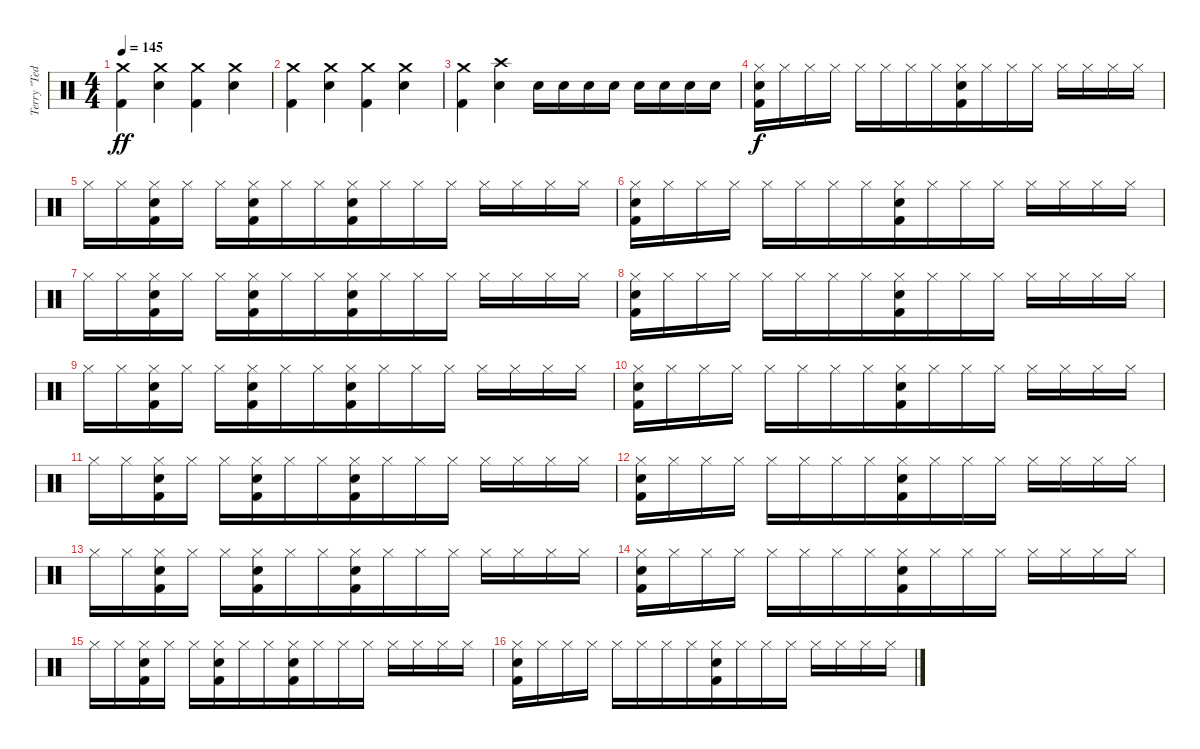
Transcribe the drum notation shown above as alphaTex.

\track ("Terry \"Ted\" Bozzio" "Terry \"Ted") {instrument percussion}
\staff {score}
\articulation defaults
\ts (4 4)
\tempo 145
\clef neutral
\ks c
("Crash medium (hit)" "Kick (hit) 2").4{dy ff beam merge} ("Crash medium (hit)" "Electric Snare (hit)").4 ("Crash medium (hit)" "Kick (hit) 2").4 ("Crash medium (hit)" "Electric Snare (hit)").4 |
("Crash medium (hit)" "Kick (hit) 2").4 ("Crash medium (hit)" "Electric Snare (hit)").4{beam merge} ("Crash medium (hit)" "Kick (hit) 2").4 ("Crash medium (hit)" "Electric Snare (hit)").4 |
("Crash medium (hit)" "Kick (hit) 2").4{beam merge} ("Crash high (hit)" "Electric Snare (hit)").4 "Electric Snare (hit)".16 "Electric Snare (hit)".16 "Electric Snare (hit)".16{beam merge} "Electric Snare (hit)".16 "Electric Snare (hit)".16 "Electric Snare (hit)".16 "Electric Snare (hit)".16 "Electric Snare (hit)".16 |
("Hi-Hat (closed)" "Electric Snare (hit)" "Kick (hit) 2").16{dy f} "Hi-Hat (closed)".16{beam merge} "Hi-Hat (closed)".16 "Hi-Hat (closed)".16 "Hi-Hat (closed)".16 "Hi-Hat (closed)".16 "Hi-Hat (closed)".16 "Hi-Hat (closed)".16{beam merge} ("Hi-Hat (closed)" "Electric Snare (hit)" "Kick (hit) 2").16 "Hi-Hat (closed)".16 "Hi-Hat (closed)".16 "Hi-Hat (closed)".16 "Hi-Hat (closed)".16 "Hi-Hat (closed)".16 "Hi-Hat (closed)".16{beam merge} "Hi-Hat (closed)".16 |
"Hi-Hat (closed)".16 "Hi-Hat (closed)".16{beam merge} ("Hi-Hat (closed)" "Electric Snare (hit)" "Kick (hit) 2").16 "Hi-Hat (closed)".16 "Hi-Hat (closed)".16 ("Hi-Hat (closed)" "Electric Snare (hit)" "Kick (hit) 2").16 "Hi-Hat (closed)".16 "Hi-Hat (closed)".16{beam merge} ("Hi-Hat (closed)" "Electric Snare (hit)" "Kick (hit) 2").16 "Hi-Hat (closed)".16 "Hi-Hat (closed)".16 "Hi-Hat (closed)".16 "Hi-Hat (closed)".16 "Hi-Hat (closed)".16 "Hi-Hat (closed)".16{beam merge} "Hi-Hat (closed)".16 |
("Hi-Hat (closed)" "Electric Snare (hit)" "Kick (hit) 2").16 "Hi-Hat (closed)".16{beam merge} "Hi-Hat (closed)".16 "Hi-Hat (closed)".16 "Hi-Hat (closed)".16 "Hi-Hat (closed)".16 "Hi-Hat (closed)".16 "Hi-Hat (closed)".16{beam merge} ("Hi-Hat (closed)" "Electric Snare (hit)" "Kick (hit) 2").16 "Hi-Hat (closed)".16 "Hi-Hat (closed)".16 "Hi-Hat (closed)".16 "Hi-Hat (closed)".16 "Hi-Hat (closed)".16 "Hi-Hat (closed)".16{beam merge} "Hi-Hat (closed)".16 |
"Hi-Hat (closed)".16 "Hi-Hat (closed)".16{beam merge} ("Hi-Hat (closed)" "Electric Snare (hit)" "Kick (hit) 2").16 "Hi-Hat (closed)".16 "Hi-Hat (closed)".16 ("Hi-Hat (closed)" "Electric Snare (hit)" "Kick (hit) 2").16 "Hi-Hat (closed)".16 "Hi-Hat (closed)".16{beam merge} ("Hi-Hat (closed)" "Electric Snare (hit)" "Kick (hit) 2").16 "Hi-Hat (closed)".16 "Hi-Hat (closed)".16 "Hi-Hat (closed)".16 "Hi-Hat (closed)".16 "Hi-Hat (closed)".16 "Hi-Hat (closed)".16{beam merge} "Hi-Hat (closed)".16 |
("Hi-Hat (closed)" "Electric Snare (hit)" "Kick (hit) 2").16 "Hi-Hat (closed)".16{beam merge} "Hi-Hat (closed)".16 "Hi-Hat (closed)".16 "Hi-Hat (closed)".16 "Hi-Hat (closed)".16 "Hi-Hat (closed)".16 "Hi-Hat (closed)".16{beam merge} ("Hi-Hat (closed)" "Electric Snare (hit)" "Kick (hit) 2").16 "Hi-Hat (closed)".16 "Hi-Hat (closed)".16 "Hi-Hat (closed)".16 "Hi-Hat (closed)".16 "Hi-Hat (closed)".16 "Hi-Hat (closed)".16{beam merge} "Hi-Hat (closed)".16 |
"Hi-Hat (closed)".16 "Hi-Hat (closed)".16{beam merge} ("Hi-Hat (closed)" "Electric Snare (hit)" "Kick (hit) 2").16 "Hi-Hat (closed)".16 "Hi-Hat (closed)".16 ("Hi-Hat (closed)" "Electric Snare (hit)" "Kick (hit) 2").16 "Hi-Hat (closed)".16 "Hi-Hat (closed)".16{beam merge} ("Hi-Hat (closed)" "Electric Snare (hit)" "Kick (hit) 2").16 "Hi-Hat (closed)".16 "Hi-Hat (closed)".16 "Hi-Hat (closed)".16 "Hi-Hat (closed)".16 "Hi-Hat (closed)".16 "Hi-Hat (closed)".16{beam merge} "Hi-Hat (closed)".16 |
("Hi-Hat (closed)" "Electric Snare (hit)" "Kick (hit) 2").16 "Hi-Hat (closed)".16{beam merge} "Hi-Hat (closed)".16 "Hi-Hat (closed)".16 "Hi-Hat (closed)".16 "Hi-Hat (closed)".16 "Hi-Hat (closed)".16 "Hi-Hat (closed)".16{beam merge} ("Hi-Hat (closed)" "Electric Snare (hit)" "Kick (hit) 2").16 "Hi-Hat (closed)".16 "Hi-Hat (closed)".16 "Hi-Hat (closed)".16 "Hi-Hat (closed)".16 "Hi-Hat (closed)".16 "Hi-Hat (closed)".16{beam merge} "Hi-Hat (closed)".16 |
"Hi-Hat (closed)".16 "Hi-Hat (closed)".16{beam merge} ("Hi-Hat (closed)" "Electric Snare (hit)" "Kick (hit) 2").16 "Hi-Hat (closed)".16 "Hi-Hat (closed)".16 ("Hi-Hat (closed)" "Electric Snare (hit)" "Kick (hit) 2").16 "Hi-Hat (closed)".16 "Hi-Hat (closed)".16{beam merge} ("Hi-Hat (closed)" "Electric Snare (hit)" "Kick (hit) 2").16 "Hi-Hat (closed)".16 "Hi-Hat (closed)".16 "Hi-Hat (closed)".16 "Hi-Hat (closed)".16 "Hi-Hat (closed)".16 "Hi-Hat (closed)".16{beam merge} "Hi-Hat (closed)".16 |
("Hi-Hat (closed)" "Electric Snare (hit)" "Kick (hit) 2").16 "Hi-Hat (closed)".16{beam merge} "Hi-Hat (closed)".16 "Hi-Hat (closed)".16 "Hi-Hat (closed)".16 "Hi-Hat (closed)".16 "Hi-Hat (closed)".16 "Hi-Hat (closed)".16{beam merge} ("Hi-Hat (closed)" "Electric Snare (hit)" "Kick (hit) 2").16 "Hi-Hat (closed)".16 "Hi-Hat (closed)".16 "Hi-Hat (closed)".16 "Hi-Hat (closed)".16 "Hi-Hat (closed)".16 "Hi-Hat (closed)".16{beam merge} "Hi-Hat (closed)".16 |
"Hi-Hat (closed)".16 "Hi-Hat (closed)".16{beam merge} ("Hi-Hat (closed)" "Electric Snare (hit)" "Kick (hit) 2").16 "Hi-Hat (closed)".16 "Hi-Hat (closed)".16 ("Hi-Hat (closed)" "Electric Snare (hit)" "Kick (hit) 2").16 "Hi-Hat (closed)".16 "Hi-Hat (closed)".16{beam merge} ("Hi-Hat (closed)" "Electric Snare (hit)" "Kick (hit) 2").16 "Hi-Hat (closed)".16 "Hi-Hat (closed)".16 "Hi-Hat (closed)".16 "Hi-Hat (closed)".16 "Hi-Hat (closed)".16 "Hi-Hat (closed)".16{beam merge} "Hi-Hat (closed)".16 |
("Hi-Hat (closed)" "Electric Snare (hit)" "Kick (hit) 2").16 "Hi-Hat (closed)".16{beam merge} "Hi-Hat (closed)".16 "Hi-Hat (closed)".16 "Hi-Hat (closed)".16 "Hi-Hat (closed)".16 "Hi-Hat (closed)".16 "Hi-Hat (closed)".16{beam merge} ("Hi-Hat (closed)" "Electric Snare (hit)" "Kick (hit) 2").16 "Hi-Hat (closed)".16 "Hi-Hat (closed)".16 "Hi-Hat (closed)".16 "Hi-Hat (closed)".16 "Hi-Hat (closed)".16 "Hi-Hat (closed)".16{beam merge} "Hi-Hat (closed)".16 |
"Hi-Hat (closed)".16 "Hi-Hat (closed)".16{beam merge} ("Hi-Hat (closed)" "Electric Snare (hit)" "Kick (hit) 2").16 "Hi-Hat (closed)".16 "Hi-Hat (closed)".16 ("Hi-Hat (closed)" "Electric Snare (hit)" "Kick (hit) 2").16 "Hi-Hat (closed)".16 "Hi-Hat (closed)".16{beam merge} ("Hi-Hat (closed)" "Electric Snare (hit)" "Kick (hit) 2").16 "Hi-Hat (closed)".16 "Hi-Hat (closed)".16 "Hi-Hat (closed)".16 "Hi-Hat (closed)".16 "Hi-Hat (closed)".16 "Hi-Hat (closed)".16{beam merge} "Hi-Hat (closed)".16 |
("Hi-Hat (closed)" "Electric Snare (hit)" "Kick (hit) 2").16 "Hi-Hat (closed)".16{beam merge} "Hi-Hat (closed)".16 "Hi-Hat (closed)".16 "Hi-Hat (closed)".16 "Hi-Hat (closed)".16 "Hi-Hat (closed)".16 "Hi-Hat (closed)".16{beam merge} ("Hi-Hat (closed)" "Electric Snare (hit)" "Kick (hit) 2").16 "Hi-Hat (closed)".16 "Hi-Hat (closed)".16 "Hi-Hat (closed)".16 "Hi-Hat (closed)".16 "Hi-Hat (closed)".16 "Hi-Hat (closed)".16{beam merge} "Hi-Hat (closed)".16
